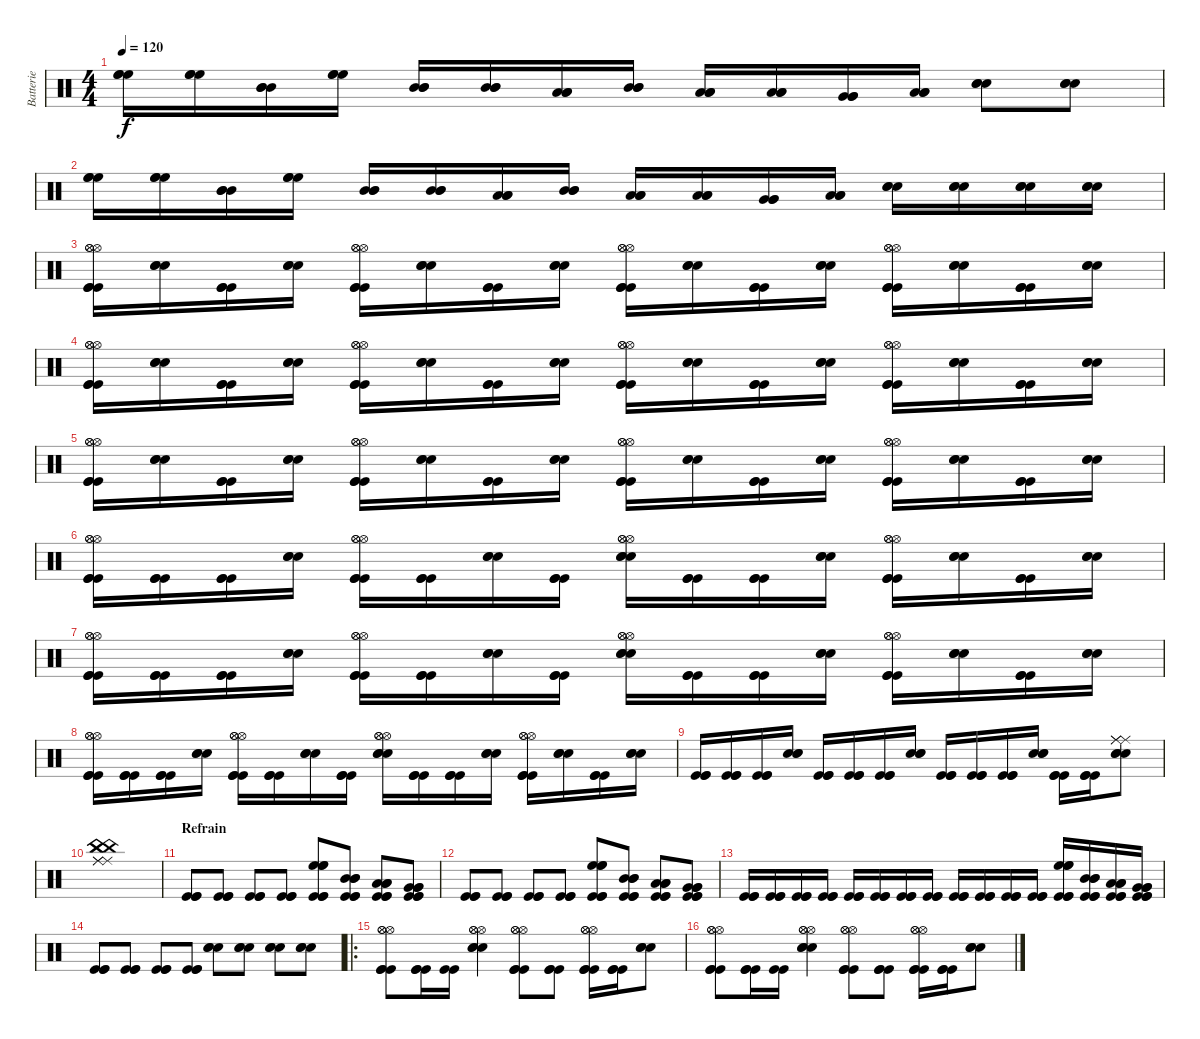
\track ("Batterie" "Batterie") {instrument percussion}
\staff {score}
\articulation defaults
\ts (4 4)
\tempo 120
\clef neutral
\ks c
("High Floor Tom (hit)" "High Floor Tom (hit)" "High Floor Tom (hit)").16{dy f} ("High Floor Tom (hit)" "High Floor Tom (hit)" "High Floor Tom (hit)").16 ("Mid Tom (hit)" "Mid Tom (hit)" "Mid Tom (hit)").16 ("High Floor Tom (hit)" "High Floor Tom (hit)" "High Floor Tom (hit)").16 ("Mid Tom (hit)" "Mid Tom (hit)" "Mid Tom (hit)").16 ("Mid Tom (hit)" "Mid Tom (hit)" "Mid Tom (hit)").16 ("Low Tom (hit)" "Low Tom (hit)" "Low Tom (hit)").16 ("Mid Tom (hit)" "Mid Tom (hit)" "Mid Tom (hit)").16 ("Low Tom (hit)" "Low Tom (hit)" "Low Tom (hit)").16 ("Low Tom (hit)" "Low Tom (hit)" "Low Tom (hit)").16 ("Very Low Tom (hit)" "Very Low Tom (hit)" "Very Low Tom (hit)").16 ("Low Tom (hit)" "Low Tom (hit)" "Low Tom (hit)").16 ("Snare (hit) 2" "Snare (hit) 2" "Snare (hit) 2").8 ("Snare (hit) 2" "Snare (hit) 2" "Snare (hit) 2").8 |
("High Floor Tom (hit)" "High Floor Tom (hit)" "High Floor Tom (hit)").16 ("High Floor Tom (hit)" "High Floor Tom (hit)" "High Floor Tom (hit)").16 ("Mid Tom (hit)" "Mid Tom (hit)" "Mid Tom (hit)").16 ("High Floor Tom (hit)" "High Floor Tom (hit)" "High Floor Tom (hit)").16 ("Mid Tom (hit)" "Mid Tom (hit)" "Mid Tom (hit)").16 ("Mid Tom (hit)" "Mid Tom (hit)" "Mid Tom (hit)").16 ("Low Tom (hit)" "Low Tom (hit)" "Low Tom (hit)").16 ("Mid Tom (hit)" "Mid Tom (hit)" "Mid Tom (hit)").16 ("Low Tom (hit)" "Low Tom (hit)" "Low Tom (hit)").16 ("Low Tom (hit)" "Low Tom (hit)" "Low Tom (hit)").16 ("Very Low Tom (hit)" "Very Low Tom (hit)" "Very Low Tom (hit)").16 ("Low Tom (hit)" "Low Tom (hit)" "Low Tom (hit)").16 ("Snare (hit) 2" "Snare (hit) 2" "Snare (hit) 2").16 ("Snare (hit) 2" "Snare (hit) 2" "Snare (hit) 2").16 ("Snare (hit) 2" "Snare (hit) 2" "Snare (hit) 2").16 ("Snare (hit) 2" "Snare (hit) 2" "Snare (hit) 2").16 |
("Hi-Hat (open)" "Hi-Hat (open)" "Hi-Hat (open)" "Kick (hit)" "Kick (hit)" "Kick (hit)").16 ("Snare (hit) 2" "Snare (hit) 2" "Snare (hit) 2").16 ("Kick (hit)" "Kick (hit)" "Kick (hit)").16 ("Snare (hit) 2" "Snare (hit) 2" "Snare (hit) 2").16 ("Hi-Hat (open)" "Hi-Hat (open)" "Hi-Hat (open)" "Kick (hit)" "Kick (hit)" "Kick (hit)").16 ("Snare (hit) 2" "Snare (hit) 2" "Snare (hit) 2").16 ("Kick (hit)" "Kick (hit)" "Kick (hit)").16 ("Snare (hit) 2" "Snare (hit) 2" "Snare (hit) 2").16 ("Kick (hit)" "Kick (hit)" "Kick (hit)" "Hi-Hat (open)" "Hi-Hat (open)" "Hi-Hat (open)").16 ("Snare (hit) 2" "Snare (hit) 2" "Snare (hit) 2").16 ("Kick (hit)" "Kick (hit)" "Kick (hit)").16 ("Snare (hit) 2" "Snare (hit) 2" "Snare (hit) 2").16 ("Kick (hit)" "Hi-Hat (open)" "Hi-Hat (open)" "Hi-Hat (open)" "Kick (hit)" "Kick (hit)").16 ("Snare (hit) 2" "Snare (hit) 2" "Snare (hit) 2").16 ("Kick (hit)" "Kick (hit)" "Kick (hit)").16 ("Snare (hit) 2" "Snare (hit) 2" "Snare (hit) 2").16 |
("Hi-Hat (open)" "Hi-Hat (open)" "Hi-Hat (open)" "Kick (hit)" "Kick (hit)" "Kick (hit)").16 ("Snare (hit) 2" "Snare (hit) 2" "Snare (hit) 2").16 ("Kick (hit)" "Kick (hit)" "Kick (hit)").16 ("Snare (hit) 2" "Snare (hit) 2" "Snare (hit) 2").16 ("Hi-Hat (open)" "Hi-Hat (open)" "Hi-Hat (open)" "Kick (hit)" "Kick (hit)" "Kick (hit)").16 ("Snare (hit) 2" "Snare (hit) 2" "Snare (hit) 2").16 ("Kick (hit)" "Kick (hit)" "Kick (hit)").16 ("Snare (hit) 2" "Snare (hit) 2" "Snare (hit) 2").16 ("Kick (hit)" "Kick (hit)" "Kick (hit)" "Hi-Hat (open)" "Hi-Hat (open)" "Hi-Hat (open)").16 ("Snare (hit) 2" "Snare (hit) 2" "Snare (hit) 2").16 ("Kick (hit)" "Kick (hit)" "Kick (hit)").16 ("Snare (hit) 2" "Snare (hit) 2" "Snare (hit) 2").16 ("Kick (hit)" "Hi-Hat (open)" "Hi-Hat (open)" "Hi-Hat (open)" "Kick (hit)" "Kick (hit)").16 ("Snare (hit) 2" "Snare (hit) 2" "Snare (hit) 2").16 ("Kick (hit)" "Kick (hit)" "Kick (hit)").16 ("Snare (hit) 2" "Snare (hit) 2" "Snare (hit) 2").16 |
("Hi-Hat (open)" "Hi-Hat (open)" "Hi-Hat (open)" "Kick (hit)" "Kick (hit)" "Kick (hit)").16 ("Snare (hit) 2" "Snare (hit) 2" "Snare (hit) 2").16 ("Kick (hit)" "Kick (hit)" "Kick (hit)").16 ("Snare (hit) 2" "Snare (hit) 2" "Snare (hit) 2").16 ("Hi-Hat (open)" "Hi-Hat (open)" "Hi-Hat (open)" "Kick (hit)" "Kick (hit)" "Kick (hit)").16 ("Snare (hit) 2" "Snare (hit) 2" "Snare (hit) 2").16 ("Kick (hit)" "Kick (hit)" "Kick (hit)").16 ("Snare (hit) 2" "Snare (hit) 2" "Snare (hit) 2").16 ("Kick (hit)" "Kick (hit)" "Kick (hit)" "Hi-Hat (open)" "Hi-Hat (open)" "Hi-Hat (open)").16 ("Snare (hit) 2" "Snare (hit) 2" "Snare (hit) 2").16 ("Kick (hit)" "Kick (hit)" "Kick (hit)").16 ("Snare (hit) 2" "Snare (hit) 2" "Snare (hit) 2").16 ("Kick (hit)" "Hi-Hat (open)" "Hi-Hat (open)" "Hi-Hat (open)" "Kick (hit)" "Kick (hit)").16 ("Snare (hit) 2" "Snare (hit) 2" "Snare (hit) 2").16 ("Kick (hit)" "Kick (hit)" "Kick (hit)").16 ("Snare (hit) 2" "Snare (hit) 2" "Snare (hit) 2").16 |
("Hi-Hat (open)" "Hi-Hat (open)" "Hi-Hat (open)" "Kick (hit)" "Kick (hit)" "Kick (hit)").16 ("Kick (hit)" "Kick (hit)" "Kick (hit)").16 ("Kick (hit)" "Kick (hit)" "Kick (hit)").16 ("Snare (hit) 2" "Snare (hit) 2" "Snare (hit) 2").16 ("Hi-Hat (open)" "Hi-Hat (open)" "Hi-Hat (open)" "Kick (hit)" "Kick (hit)" "Kick (hit)").16 ("Kick (hit)" "Kick (hit)" "Kick (hit)").16 ("Snare (hit) 2" "Snare (hit) 2" "Snare (hit) 2").16 ("Kick (hit)" "Kick (hit)" "Kick (hit)").16 ("Snare (hit) 2" "Snare (hit) 2" "Snare (hit) 2" "Hi-Hat (open)" "Hi-Hat (open)" "Hi-Hat (open)").16 ("Kick (hit)" "Kick (hit)" "Kick (hit)").16 ("Kick (hit)" "Kick (hit)" "Kick (hit)").16 ("Snare (hit) 2" "Snare (hit) 2" "Snare (hit) 2").16 ("Kick (hit)" "Hi-Hat (open)" "Hi-Hat (open)" "Hi-Hat (open)" "Kick (hit)" "Kick (hit)").16 ("Snare (hit) 2" "Snare (hit) 2" "Snare (hit) 2").16 ("Kick (hit)" "Kick (hit)" "Kick (hit)").16 ("Snare (hit) 2" "Snare (hit) 2" "Snare (hit) 2").16 |
("Hi-Hat (open)" "Hi-Hat (open)" "Hi-Hat (open)" "Kick (hit)" "Kick (hit)" "Kick (hit)").16 ("Kick (hit)" "Kick (hit)" "Kick (hit)").16 ("Kick (hit)" "Kick (hit)" "Kick (hit)").16 ("Snare (hit) 2" "Snare (hit) 2" "Snare (hit) 2").16 ("Hi-Hat (open)" "Hi-Hat (open)" "Hi-Hat (open)" "Kick (hit)" "Kick (hit)" "Kick (hit)").16 ("Kick (hit)" "Kick (hit)" "Kick (hit)").16 ("Snare (hit) 2" "Snare (hit) 2" "Snare (hit) 2").16 ("Kick (hit)" "Kick (hit)" "Kick (hit)").16 ("Snare (hit) 2" "Snare (hit) 2" "Snare (hit) 2" "Hi-Hat (open)" "Hi-Hat (open)" "Hi-Hat (open)").16 ("Kick (hit)" "Kick (hit)" "Kick (hit)").16 ("Kick (hit)" "Kick (hit)" "Kick (hit)").16 ("Snare (hit) 2" "Snare (hit) 2" "Snare (hit) 2").16 ("Kick (hit)" "Hi-Hat (open)" "Hi-Hat (open)" "Hi-Hat (open)" "Kick (hit)" "Kick (hit)").16 ("Snare (hit) 2" "Snare (hit) 2" "Snare (hit) 2").16 ("Kick (hit)" "Kick (hit)" "Kick (hit)").16 ("Snare (hit) 2" "Snare (hit) 2" "Snare (hit) 2").16 |
("Hi-Hat (open)" "Hi-Hat (open)" "Hi-Hat (open)" "Kick (hit)" "Kick (hit)" "Kick (hit)").16 ("Kick (hit)" "Kick (hit)" "Kick (hit)").16 ("Kick (hit)" "Kick (hit)" "Kick (hit)").16 ("Snare (hit) 2" "Snare (hit) 2" "Snare (hit) 2").16 ("Hi-Hat (open)" "Hi-Hat (open)" "Hi-Hat (open)" "Kick (hit)" "Kick (hit)" "Kick (hit)").16 ("Kick (hit)" "Kick (hit)" "Kick (hit)").16 ("Snare (hit) 2" "Snare (hit) 2" "Snare (hit) 2").16 ("Kick (hit)" "Kick (hit)" "Kick (hit)").16 ("Snare (hit) 2" "Snare (hit) 2" "Snare (hit) 2" "Hi-Hat (open)" "Hi-Hat (open)" "Hi-Hat (open)").16 ("Kick (hit)" "Kick (hit)" "Kick (hit)").16 ("Kick (hit)" "Kick (hit)" "Kick (hit)").16 ("Snare (hit) 2" "Snare (hit) 2" "Snare (hit) 2").16 ("Kick (hit)" "Hi-Hat (open)" "Hi-Hat (open)" "Hi-Hat (open)" "Kick (hit)" "Kick (hit)").16 ("Snare (hit) 2" "Snare (hit) 2" "Snare (hit) 2").16 ("Kick (hit)" "Kick (hit)" "Kick (hit)").16 ("Snare (hit) 2" "Snare (hit) 2" "Snare (hit) 2").16 |
("Kick (hit)" "Kick (hit)" "Kick (hit)").16 ("Kick (hit)" "Kick (hit)" "Kick (hit)").16 ("Kick (hit)" "Kick (hit)" "Kick (hit)").16 ("Snare (hit) 2" "Snare (hit) 2" "Snare (hit) 2").16 ("Kick (hit)" "Kick (hit)" "Kick (hit)").16 ("Kick (hit)" "Kick (hit)" "Kick (hit)").16 ("Kick (hit)" "Kick (hit)" "Kick (hit)").16 ("Snare (hit) 2" "Snare (hit) 2" "Snare (hit) 2").16 ("Kick (hit)" "Kick (hit)" "Kick (hit)").16 ("Kick (hit)" "Kick (hit)" "Kick (hit)").16 ("Kick (hit)" "Kick (hit)" "Kick (hit)").16 ("Snare (hit) 2" "Snare (hit) 2" "Snare (hit) 2").16 ("Kick (hit)" "Kick (hit)" "Kick (hit)").16 ("Kick (hit)" "Kick (hit)" "Kick (hit)").16 ("Ride (middle)" "Ride (middle)" "Snare (hit) 2" "Snare (hit) 2" "Snare (hit) 2" "Ride (middle)").8 |
("Ride (middle)" "Ride (middle)" "Ride (middle)" "China (hit)" "China (hit)" "China (hit)").1 |
\section ("" "Refrain")
("Kick (hit)" "Kick (hit)" "Kick (hit)").8 ("Kick (hit)" "Kick (hit)" "Kick (hit)").8 ("Kick (hit)" "Kick (hit)" "Kick (hit)").8 ("Kick (hit)" "Kick (hit)" "Kick (hit)").8 ("High Floor Tom (hit)" "High Floor Tom (hit)" "High Floor Tom (hit)" "Kick (hit)" "Kick (hit)" "Kick (hit)").8 ("Mid Tom (hit)" "Mid Tom (hit)" "Mid Tom (hit)" "Kick (hit)" "Kick (hit)" "Kick (hit)").8 ("Low Tom (hit)" "Low Tom (hit)" "Low Tom (hit)" "Kick (hit)" "Kick (hit)" "Kick (hit)").8 ("Very Low Tom (hit)" "Very Low Tom (hit)" "Very Low Tom (hit)" "Kick (hit)" "Kick (hit)" "Kick (hit)").8 |
("Kick (hit)" "Kick (hit)" "Kick (hit)").8 ("Kick (hit)" "Kick (hit)" "Kick (hit)").8 ("Kick (hit)" "Kick (hit)" "Kick (hit)").8 ("Kick (hit)" "Kick (hit)" "Kick (hit)").8 ("High Floor Tom (hit)" "High Floor Tom (hit)" "High Floor Tom (hit)" "Kick (hit)" "Kick (hit)" "Kick (hit)").8 ("Mid Tom (hit)" "Mid Tom (hit)" "Mid Tom (hit)" "Kick (hit)" "Kick (hit)" "Kick (hit)").8 ("Low Tom (hit)" "Low Tom (hit)" "Low Tom (hit)" "Kick (hit)" "Kick (hit)" "Kick (hit)").8 ("Very Low Tom (hit)" "Very Low Tom (hit)" "Very Low Tom (hit)" "Kick (hit)" "Kick (hit)" "Kick (hit)").8 |
("Kick (hit)" "Kick (hit)" "Kick (hit)").16 ("Kick (hit)" "Kick (hit)" "Kick (hit)").16 ("Kick (hit)" "Kick (hit)" "Kick (hit)").16 ("Kick (hit)" "Kick (hit)" "Kick (hit)").16 ("Kick (hit)" "Kick (hit)" "Kick (hit)").16 ("Kick (hit)" "Kick (hit)" "Kick (hit)").16 ("Kick (hit)" "Kick (hit)" "Kick (hit)").16 ("Kick (hit)" "Kick (hit)" "Kick (hit)").16 ("Kick (hit)" "Kick (hit)" "Kick (hit)").16 ("Kick (hit)" "Kick (hit)" "Kick (hit)").16 ("Kick (hit)" "Kick (hit)" "Kick (hit)").16 ("Kick (hit)" "Kick (hit)" "Kick (hit)").16 ("High Floor Tom (hit)" "High Floor Tom (hit)" "Kick (hit)" "Kick (hit)" "Kick (hit)" "High Floor Tom (hit)").16 ("Mid Tom (hit)" "Mid Tom (hit)" "Kick (hit)" "Kick (hit)" "Kick (hit)" "Mid Tom (hit)").16 ("Low Tom (hit)" "Low Tom (hit)" "Kick (hit)" "Kick (hit)" "Kick (hit)" "Low Tom (hit)").16 ("Kick (hit)" "Kick (hit)" "Kick (hit)" "Very Low Tom (hit)" "Very Low Tom (hit)" "Very Low Tom (hit)").16 |
("Kick (hit)" "Kick (hit)" "Kick (hit)").8 ("Kick (hit)" "Kick (hit)" "Kick (hit)").8 ("Kick (hit)" "Kick (hit)" "Kick (hit)").8 ("Kick (hit)" "Kick (hit)" "Kick (hit)").8 ("Snare (hit) 2" "Snare (hit) 2" "Snare (hit) 2").8 ("Snare (hit) 2" "Snare (hit) 2" "Snare (hit) 2").8 ("Snare (hit) 2" "Snare (hit) 2" "Snare (hit) 2").8 ("Snare (hit) 2" "Snare (hit) 2" "Snare (hit) 2").8 |
\ro
("Kick (hit)" "Kick (hit)" "Kick (hit)" "Hi-Hat (open)" "Hi-Hat (open)" "Hi-Hat (open)").8 ("Kick (hit)" "Kick (hit)" "Kick (hit)").16 ("Kick (hit)" "Kick (hit)").16 ("Hi-Hat (open)" "Snare (hit) 2" "Snare (hit) 2" "Snare (hit) 2" "Hi-Hat (open)" "Hi-Hat (open)").4 ("Hi-Hat (open)" "Hi-Hat (open)" "Hi-Hat (open)" "Kick (hit)" "Kick (hit)" "Kick (hit)").8 ("Kick (hit)" "Kick (hit)" "Kick (hit)").8 ("Kick (hit)" "Kick (hit)" "Kick (hit)" "Hi-Hat (open)" "Hi-Hat (open)" "Hi-Hat (open)").16 ("Kick (hit)" "Kick (hit)" "Kick (hit)").16 ("Snare (hit) 2" "Snare (hit) 2" "Snare (hit) 2").8 |
("Kick (hit)" "Kick (hit)" "Kick (hit)" "Hi-Hat (open)" "Hi-Hat (open)" "Hi-Hat (open)").8 ("Kick (hit)" "Kick (hit)" "Kick (hit)").16 ("Kick (hit)" "Kick (hit)").16 ("Hi-Hat (open)" "Snare (hit) 2" "Snare (hit) 2" "Snare (hit) 2" "Hi-Hat (open)" "Hi-Hat (open)").4 ("Hi-Hat (open)" "Hi-Hat (open)" "Hi-Hat (open)" "Kick (hit)" "Kick (hit)" "Kick (hit)").8 ("Kick (hit)" "Kick (hit)" "Kick (hit)").8 ("Kick (hit)" "Kick (hit)" "Kick (hit)" "Hi-Hat (open)" "Hi-Hat (open)" "Hi-Hat (open)").16 ("Kick (hit)" "Kick (hit)" "Kick (hit)").16 ("Snare (hit) 2" "Snare (hit) 2" "Snare (hit) 2").8
